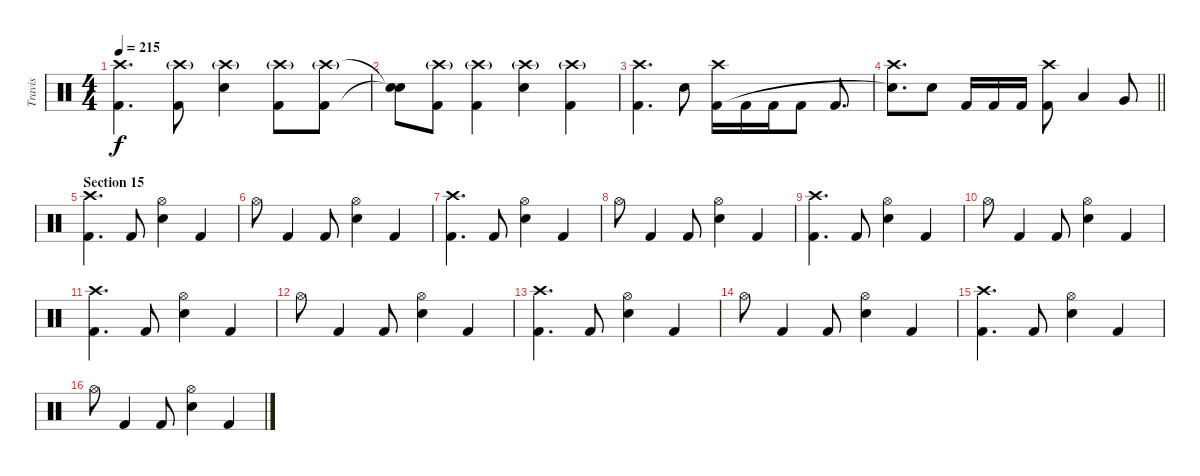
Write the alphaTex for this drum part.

\track ("Travis" "Travis") {instrument percussion}
\staff {score}
\articulation defaults
\ts (4 4)
\tempo 215
\clef neutral
\ks c
("Crash high (hit)" "Kick (hit) 2").4{d dy f} ("Crash high (hit)"{g} "Kick (hit) 2").8 ("Crash high (hit)"{g} "Snare (hit) 2").4 ("Crash high (hit)"{g} "Kick (hit) 2").8 ("Crash high (hit)"{g} "Kick (hit) 2").8 |
("Snare (hit)"{t} "Snare (hit)"{t}).8 ("Crash high (hit)"{g} "Kick (hit) 2").8 ("Crash high (hit)"{g} "Kick (hit) 2").4 ("Crash high (hit)"{g} "Snare (hit) 2").4 ("Crash high (hit)"{g} "Kick (hit) 2").4 |
("Crash high (hit)" "Kick (hit) 2").4{d} "Snare (hit) 2".8 ("Crash high (hit)" "Kick (hit) 2").16 "Kick (hit) 2".16 "Kick (hit) 2".16 "Kick (hit) 2".8 "Kick (hit) 2".8{d} |
\barLineRight lightlight
("Crash high (hit)" "Snare (hit)"{t}).8{d} "Snare (hit) 2".8 "Kick (hit) 2".16 "Kick (hit) 2".16 "Kick (hit) 2".16 ("Crash high (hit)" "Kick (hit) 2").8 "Low Tom (hit)".4 "Very Low Tom (hit)".8 |
\section ("" "Section 15")
("Crash high (hit)" "Kick (hit) 2").4{d} "Kick (hit) 2".8 ("Hi-Hat (open)" "Snare (hit) 2").4 "Kick (hit) 2".4 |
"Hi-Hat (open)".8 "Kick (hit) 2".4 "Kick (hit) 2".8 ("Hi-Hat (open)" "Snare (hit) 2").4 "Kick (hit) 2".4 |
("Crash high (hit)" "Kick (hit) 2").4{d} "Kick (hit) 2".8 ("Hi-Hat (open)" "Snare (hit) 2").4 "Kick (hit) 2".4 |
"Hi-Hat (open)".8 "Kick (hit) 2".4 "Kick (hit) 2".8 ("Hi-Hat (open)" "Snare (hit) 2").4 "Kick (hit) 2".4 |
("Crash high (hit)" "Kick (hit) 2").4{d} "Kick (hit) 2".8 ("Hi-Hat (open)" "Snare (hit) 2").4 "Kick (hit) 2".4 |
"Hi-Hat (open)".8 "Kick (hit) 2".4 "Kick (hit) 2".8 ("Hi-Hat (open)" "Snare (hit) 2").4 "Kick (hit) 2".4 |
("Crash high (hit)" "Kick (hit) 2").4{d} "Kick (hit) 2".8 ("Hi-Hat (open)" "Snare (hit) 2").4 "Kick (hit) 2".4 |
"Hi-Hat (open)".8 "Kick (hit) 2".4 "Kick (hit) 2".8 ("Hi-Hat (open)" "Snare (hit) 2").4 "Kick (hit) 2".4 |
("Crash high (hit)" "Kick (hit) 2").4{d} "Kick (hit) 2".8 ("Hi-Hat (open)" "Snare (hit) 2").4 "Kick (hit) 2".4 |
"Hi-Hat (open)".8 "Kick (hit) 2".4 "Kick (hit) 2".8 ("Hi-Hat (open)" "Snare (hit) 2").4 "Kick (hit) 2".4 |
("Crash high (hit)" "Kick (hit) 2").4{d} "Kick (hit) 2".8 ("Hi-Hat (open)" "Snare (hit) 2").4 "Kick (hit) 2".4 |
"Hi-Hat (open)".8 "Kick (hit) 2".4 "Kick (hit) 2".8 ("Hi-Hat (open)" "Snare (hit) 2").4 "Kick (hit) 2".4
